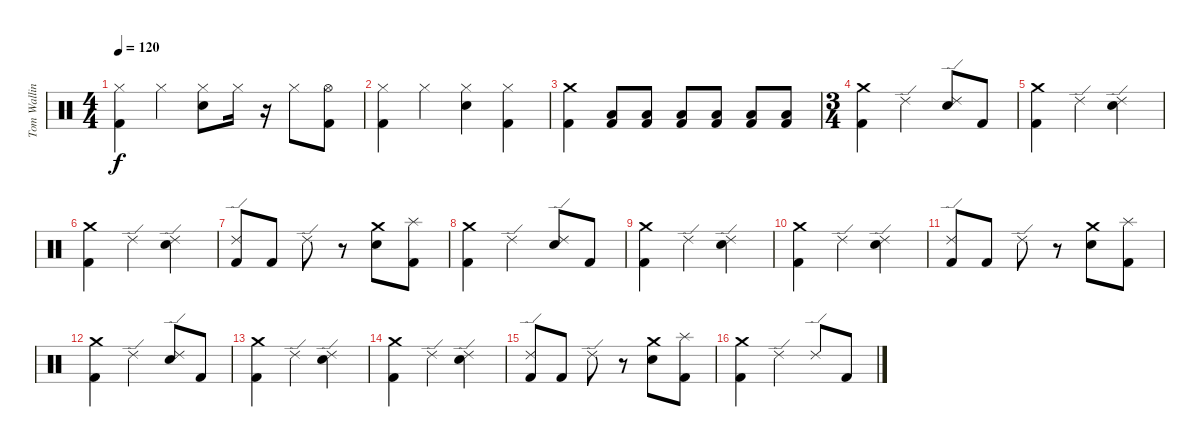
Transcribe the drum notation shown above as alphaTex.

\track ("Tom Walling (Drums)" "Tom Wallin") {instrument percussion}
\staff {score}
\articulation defaults
\ts (4 4)
\tempo 120
\clef neutral
\ks c
("Hi-Hat (closed)" "Kick (hit) 2").4{dy f} "Hi-Hat (closed)".4 ("Hi-Hat (closed)" "Electric Snare (hit)").8 "Hi-Hat (closed)".16 r.16 "Hi-Hat (closed)".8 ("Hi-Hat (open)" "Kick (hit) 2").8 |
("Hi-Hat (closed)" "Kick (hit) 2").4 "Hi-Hat (closed)".4 ("Hi-Hat (closed)" "Electric Snare (hit)").4 ("Hi-Hat (closed)" "Kick (hit) 2").4 |
("Crash medium (hit)" "Kick (hit) 2").4 ("Kick (hit) 2" "Low Floor Tom (hit)").8{volume 4} ("Kick (hit) 2" "Low Floor Tom (hit)").8{volume 6} ("Kick (hit) 2" "Low Floor Tom (hit)").8{volume 8} ("Kick (hit) 2" "Low Floor Tom (hit)").8{volume 10} ("Kick (hit) 2" "Low Floor Tom (hit)").8{volume 12} ("Kick (hit) 2" "Low Floor Tom (hit)").8{volume 14} |
\ts (3 4)
("Crash medium (hit)" "Kick (hit) 2").4{volume 16} "Ride (edge) 2".4 ("Ride (edge) 2" "Electric Snare (hit)").8 "Kick (hit) 2".8 |
("Kick (hit) 2" "Crash medium (hit)").4 "Ride (edge) 2".4 ("Electric Snare (hit)" "Ride (edge) 2").4 |
("Crash medium (hit)" "Kick (hit) 2").4 "Ride (edge) 2".4 ("Ride (edge) 2" "Electric Snare (hit)").4 |
("Ride (edge) 2" "Kick (hit) 2").8 "Kick (hit) 2".8 "Ride (edge) 2".8 r.8 ("Crash medium (hit)" "Electric Snare (hit)").8 ("Splash (hit)" "Kick (hit) 2").8 |
("Crash medium (hit)" "Kick (hit) 2").4 "Ride (edge) 2".4 ("Ride (edge) 2" "Electric Snare (hit)").8 "Kick (hit) 2".8 |
("Kick (hit) 2" "Crash medium (hit)").4 "Ride (edge) 2".4 ("Electric Snare (hit)" "Ride (edge) 2").4 |
("Crash medium (hit)" "Kick (hit) 2").4 "Ride (edge) 2".4 ("Ride (edge) 2" "Electric Snare (hit)").4 |
("Ride (edge) 2" "Kick (hit) 2").8 "Kick (hit) 2".8 "Ride (edge) 2".8 r.8 ("Crash medium (hit)" "Electric Snare (hit)").8 ("Splash (hit)" "Kick (hit) 2").8 |
("Crash medium (hit)" "Kick (hit) 2").4 "Ride (edge) 2".4 ("Ride (edge) 2" "Electric Snare (hit)").8 "Kick (hit) 2".8 |
("Kick (hit) 2" "Crash medium (hit)").4 "Ride (edge) 2".4 ("Electric Snare (hit)" "Ride (edge) 2").4 |
("Crash medium (hit)" "Kick (hit) 2").4 "Ride (edge) 2".4 ("Ride (edge) 2" "Electric Snare (hit)").4 |
("Ride (edge) 2" "Kick (hit) 2").8 "Kick (hit) 2".8 "Ride (edge) 2".8 r.8 ("Crash medium (hit)" "Electric Snare (hit)").8 ("Splash (hit)" "Kick (hit) 2").8 |
("Crash medium (hit)" "Kick (hit) 2").4 "Ride (edge) 2".4 "Ride (edge) 2".8 "Kick (hit) 2".8
